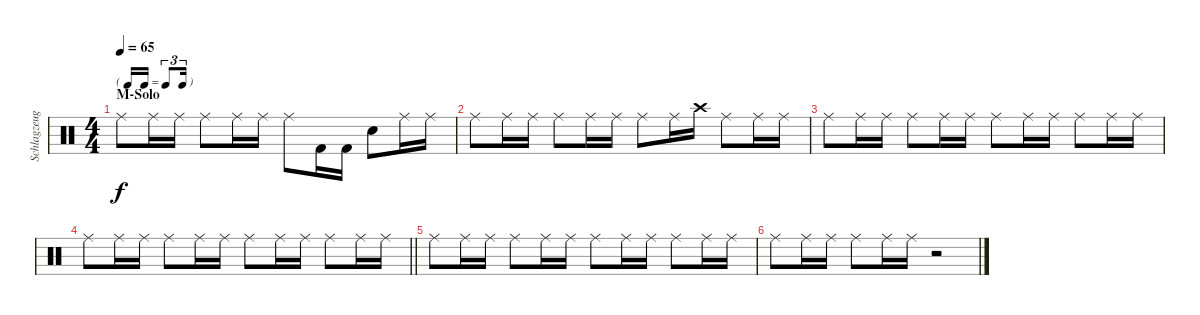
\track ("Schlagzeug" "Schlagzeug") {instrument percussion}
\staff {score}
\articulation defaults
\ts (4 4)
\tf triplet16th
\section ("" "M-Solo")
\tempo 65
\clef neutral
\ks c "Ride (middle)".8{dy f} "Ride (middle)".16 "Ride (middle)".16 "Ride (middle)".8 "Ride (middle)".16 "Ride (middle)".16 "Ride (middle)".8 "Kick (hit) 2".16 "Kick (hit) 2".16 "Electric Snare (hit)".8 "Ride (middle)".16 "Ride (middle)".16
|
"Ride (middle)".8 "Ride (middle)".16 "Ride (middle)".16 "Ride (middle)".8 "Ride (middle)".16 "Ride (middle)".16 "Ride (middle)".8 "Ride (middle)".16 "Crash high (hit)".16 "Ride (middle)".8 "Ride (middle)".16 "Ride (middle)".16 |
"Ride (middle)".8 "Ride (middle)".16 "Ride (middle)".16 "Ride (middle)".8 "Ride (middle)".16 "Ride (middle)".16 "Ride (middle)".8 "Ride (middle)".16 "Ride (middle)".16 "Ride (middle)".8 "Ride (middle)".16 "Ride (middle)".16 |
\barLineRight lightlight "Ride (middle)".8 "Ride (middle)".16 "Ride (middle)".16 "Ride (middle)".8 "Ride (middle)".16 "Ride (middle)".16 "Ride (middle)".8 "Ride (middle)".16 "Ride (middle)".16 "Ride (middle)".8 "Ride (middle)".16 "Ride (middle)".16
|
"Ride (middle)".8 "Ride (middle)".16 "Ride (middle)".16 "Ride (middle)".8 "Ride (middle)".16 "Ride (middle)".16 "Ride (middle)".8 "Ride (middle)".16 "Ride (middle)".16 "Ride (middle)".8 "Ride (middle)".16 "Ride (middle)".16 |
"Ride (middle)".8 "Ride (middle)".16 "Ride (middle)".16 "Ride (middle)".8 "Ride (middle)".16 "Ride (middle)".16 r.2
